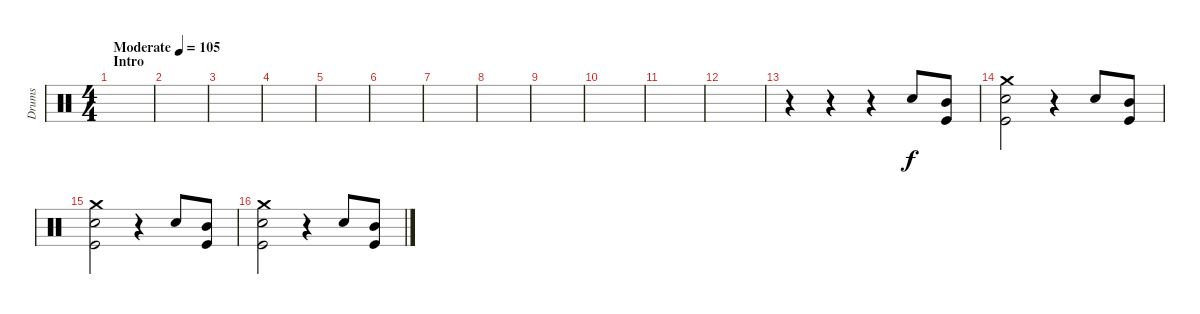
\track ("Drums" "Drums") {instrument percussion}
\staff {score}
\articulation defaults
\ts (4 4)
\section ("" "Intro")
\tempo (105 "Moderate")
\clef neutral
\ks c
|
|
|
|
|
|
|
|
|
|
|
|
r.4 r.4 r.4 "Snare (hit) 2".8 ("Mid Tom (hit)" "Kick (hit)").8 |
("Crash medium (hit)" "Snare (hit) 2" "Kick (hit)").2 r.4 "Snare (hit) 2".8 ("Mid Tom (hit)" "Kick (hit)").8 |
("Crash medium (hit)" "Snare (hit) 2" "Kick (hit)").2 r.4 "Snare (hit) 2".8 ("Mid Tom (hit)" "Kick (hit)").8 |
("Crash medium (hit)" "Snare (hit) 2" "Kick (hit)").2 r.4 "Snare (hit) 2".8 ("Mid Tom (hit)" "Kick (hit)").8
